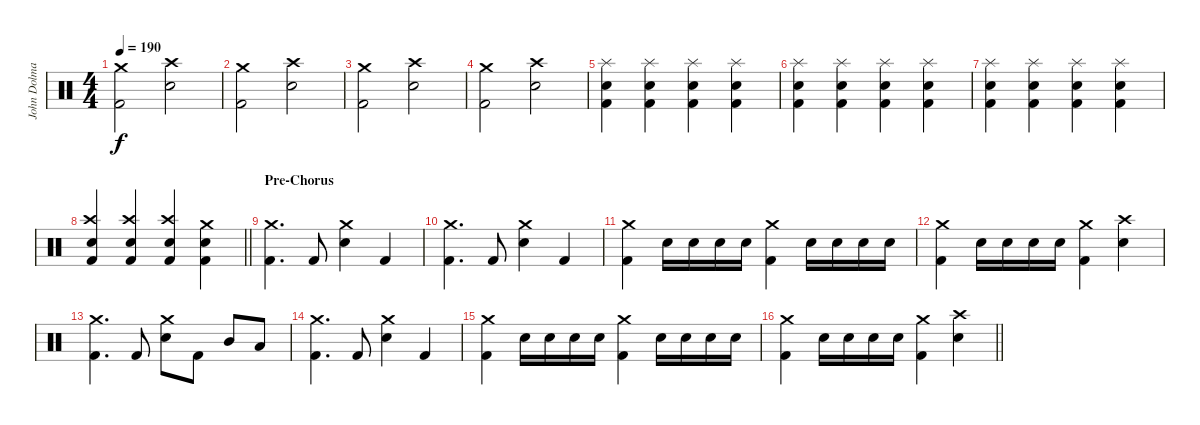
\track ("John Dolmayan" "John Dolma") {instrument percussion}
\staff {score}
\articulation defaults
\ts (4 4)
\tempo 190
\clef neutral
\ks c
("Crash medium (hit)" "Kick (hit) 2").2{dy f} ("Crash high (hit)" "Electric Snare (hit)").2 |
("Crash medium (hit)" "Kick (hit) 2").2 ("Crash high (hit)" "Electric Snare (hit)").2 |
("Crash medium (hit)" "Kick (hit) 2").2 ("Crash high (hit)" "Electric Snare (hit)").2 |
("Crash medium (hit)" "Kick (hit) 2").2 ("Crash high (hit)" "Electric Snare (hit)").2 |
("Splash (hit)" "Electric Snare (hit)" "Kick (hit) 2").4 ("Splash (hit)" "Electric Snare (hit)" "Kick (hit) 2").4 ("Splash (hit)" "Electric Snare (hit)" "Kick (hit) 2").4 ("Splash (hit)" "Electric Snare (hit)" "Kick (hit) 2").4 |
("Splash (hit)" "Electric Snare (hit)" "Kick (hit) 2").4 ("Splash (hit)" "Electric Snare (hit)" "Kick (hit) 2").4 ("Splash (hit)" "Electric Snare (hit)" "Kick (hit) 2").4 ("Splash (hit)" "Electric Snare (hit)" "Kick (hit) 2").4 |
("Splash (hit)" "Electric Snare (hit)" "Kick (hit) 2").4 ("Splash (hit)" "Electric Snare (hit)" "Kick (hit) 2").4 ("Splash (hit)" "Electric Snare (hit)" "Kick (hit) 2").4 ("Splash (hit)" "Electric Snare (hit)" "Kick (hit) 2").4 |
\barLineRight lightlight
("Crash high (hit)" "Electric Snare (hit)" "Kick (hit) 2").4 ("Crash high (hit)" "Electric Snare (hit)" "Kick (hit) 2").4 ("Crash high (hit)" "Electric Snare (hit)" "Kick (hit) 2").4 ("Crash medium (hit)" "Electric Snare (hit)" "Kick (hit) 2").4 |
\section ("" "Pre-Chorus")
("Crash medium (hit)" "Kick (hit) 2").4{d} "Kick (hit) 2".8 ("Crash medium (hit)" "Electric Snare (hit)").4 "Kick (hit) 2".4 |
("Crash medium (hit)" "Kick (hit) 2").4{d} "Kick (hit) 2".8 ("Crash medium (hit)" "Electric Snare (hit)").4 "Kick (hit) 2".4 |
("Crash medium (hit)" "Kick (hit) 2").4 "Electric Snare (hit)".16 "Electric Snare (hit)".16 "Electric Snare (hit)".16 "Electric Snare (hit)".16 ("Crash medium (hit)" "Kick (hit) 2").4 "Electric Snare (hit)".16 "Electric Snare (hit)".16 "Electric Snare (hit)".16 "Electric Snare (hit)".16 |
("Crash medium (hit)" "Kick (hit) 2").4 "Electric Snare (hit)".16 "Electric Snare (hit)".16 "Electric Snare (hit)".16 "Electric Snare (hit)".16 ("Crash medium (hit)" "Kick (hit) 2").4 ("Crash high (hit)" "Electric Snare (hit)").4 |
("Crash medium (hit)" "Kick (hit) 2").4{d} "Kick (hit) 2".8 ("Crash medium (hit)" "Electric Snare (hit)").8 "Kick (hit) 2".8 "Mid Tom (hit)".8 "Low Floor Tom (hit)".8 |
("Crash medium (hit)" "Kick (hit) 2").4{d} "Kick (hit) 2".8 ("Crash medium (hit)" "Electric Snare (hit)").4 "Kick (hit) 2".4 |
("Crash medium (hit)" "Kick (hit) 2").4 "Electric Snare (hit)".16 "Electric Snare (hit)".16 "Electric Snare (hit)".16 "Electric Snare (hit)".16 ("Crash medium (hit)" "Kick (hit) 2").4 "Electric Snare (hit)".16 "Electric Snare (hit)".16 "Electric Snare (hit)".16 "Electric Snare (hit)".16 |
\barLineRight lightlight
("Crash medium (hit)" "Kick (hit) 2").4 "Electric Snare (hit)".16 "Electric Snare (hit)".16 "Electric Snare (hit)".16 "Electric Snare (hit)".16 ("Crash medium (hit)" "Kick (hit) 2").4 ("Crash high (hit)" "Electric Snare (hit)").4
